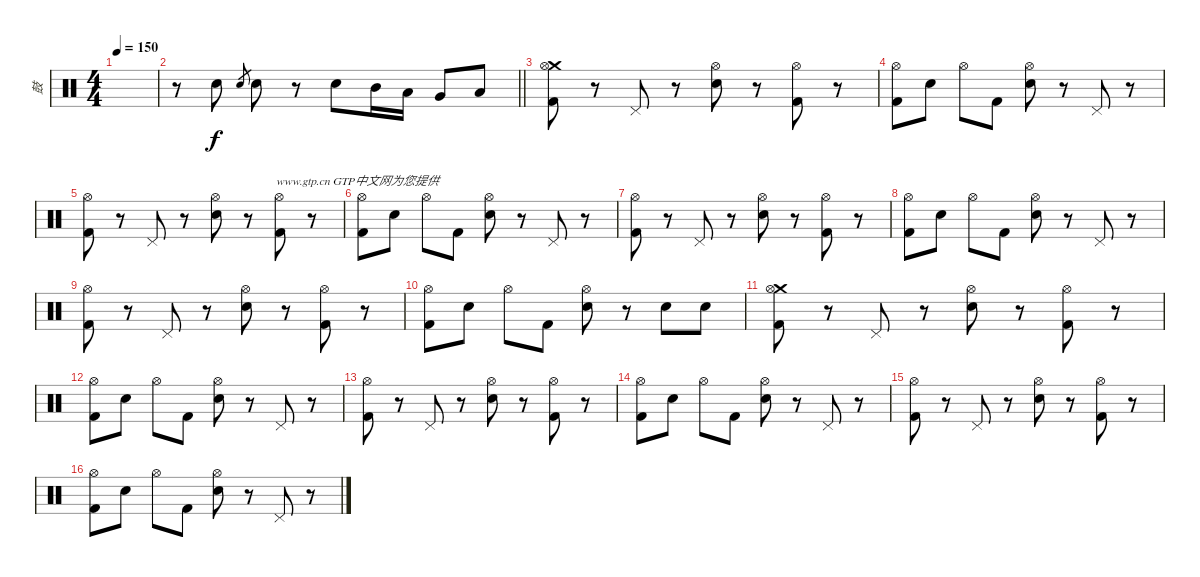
\track ("鼓" "鼓") {instrument percussion}
\staff {score}
\articulation defaults
\ts (4 4)
\tempo 150
\clef neutral
\ks c
|
\barLineRight lightlight
r.8 "Electric Snare (hit)".8 "Electric Snare (hit)".8{gr} "Electric Snare (hit)".8 r.8 "Electric Snare (hit)".8 "Mid Tom (hit)".16 "Low Tom (hit)".16 "Very Low Tom (hit)".8 "Low Floor Tom (hit)".8 |
("Crash medium (hit)" "Hi-Hat (open)" "Kick (hit) 2").8 r.8 "Pedal Hi-Hat (hit)".8 r.8 ("Hi-Hat (open)" "Electric Snare (hit)").8 r.8 ("Hi-Hat (open)" "Kick (hit) 2").8 r.8 |
("Hi-Hat (open)" "Kick (hit) 2").8 "Electric Snare (hit)".8 "Hi-Hat (open)".8 "Kick (hit) 2".8 ("Hi-Hat (open)" "Electric Snare (hit)").8 r.8 "Pedal Hi-Hat (hit)".8 r.8 |
("Hi-Hat (open)" "Kick (hit) 2").8 r.8 "Pedal Hi-Hat (hit)".8 r.8 ("Hi-Hat (open)" "Electric Snare (hit)").8{txt "                    www.gtp.cn GTP中文网为您提供"} r.8 ("Hi-Hat (open)" "Kick (hit) 2").8 r.8 |
("Hi-Hat (open)" "Kick (hit) 2").8 "Electric Snare (hit)".8 "Hi-Hat (open)".8 "Kick (hit) 2".8 ("Hi-Hat (open)" "Electric Snare (hit)").8 r.8 "Pedal Hi-Hat (hit)".8 r.8 |
("Hi-Hat (open)" "Kick (hit) 2").8 r.8 "Pedal Hi-Hat (hit)".8 r.8 ("Hi-Hat (open)" "Electric Snare (hit)").8 r.8 ("Hi-Hat (open)" "Kick (hit) 2").8 r.8 |
("Hi-Hat (open)" "Kick (hit) 2").8 "Electric Snare (hit)".8 "Hi-Hat (open)".8 "Kick (hit) 2".8 ("Hi-Hat (open)" "Electric Snare (hit)").8 r.8 "Pedal Hi-Hat (hit)".8 r.8 |
("Hi-Hat (open)" "Kick (hit) 2").8 r.8 "Pedal Hi-Hat (hit)".8 r.8 ("Hi-Hat (open)" "Electric Snare (hit)").8 r.8 ("Hi-Hat (open)" "Kick (hit) 2").8 r.8 |
("Hi-Hat (open)" "Kick (hit) 2").8 "Electric Snare (hit)".8 "Hi-Hat (open)".8 "Kick (hit) 2".8 ("Hi-Hat (open)" "Electric Snare (hit)").8 r.8 "Electric Snare (hit)".8 "Electric Snare (hit)".8 |
("Crash medium (hit)" "Hi-Hat (open)" "Kick (hit) 2").8 r.8 "Pedal Hi-Hat (hit)".8 r.8 ("Hi-Hat (open)" "Electric Snare (hit)").8 r.8 ("Hi-Hat (open)" "Kick (hit) 2").8 r.8 |
("Hi-Hat (open)" "Kick (hit) 2").8 "Electric Snare (hit)".8 "Hi-Hat (open)".8 "Kick (hit) 2".8 ("Hi-Hat (open)" "Electric Snare (hit)").8 r.8 "Pedal Hi-Hat (hit)".8 r.8 |
("Hi-Hat (open)" "Kick (hit) 2").8 r.8 "Pedal Hi-Hat (hit)".8 r.8 ("Hi-Hat (open)" "Electric Snare (hit)").8 r.8 ("Hi-Hat (open)" "Kick (hit) 2").8 r.8 |
("Hi-Hat (open)" "Kick (hit) 2").8 "Electric Snare (hit)".8 "Hi-Hat (open)".8 "Kick (hit) 2".8 ("Hi-Hat (open)" "Electric Snare (hit)").8 r.8 "Pedal Hi-Hat (hit)".8 r.8 |
("Hi-Hat (open)" "Kick (hit) 2").8 r.8 "Pedal Hi-Hat (hit)".8 r.8 ("Hi-Hat (open)" "Electric Snare (hit)").8 r.8 ("Hi-Hat (open)" "Kick (hit) 2").8 r.8 |
("Hi-Hat (open)" "Kick (hit) 2").8 "Electric Snare (hit)".8 "Hi-Hat (open)".8 "Kick (hit) 2".8 ("Hi-Hat (open)" "Electric Snare (hit)").8 r.8 "Pedal Hi-Hat (hit)".8 r.8
